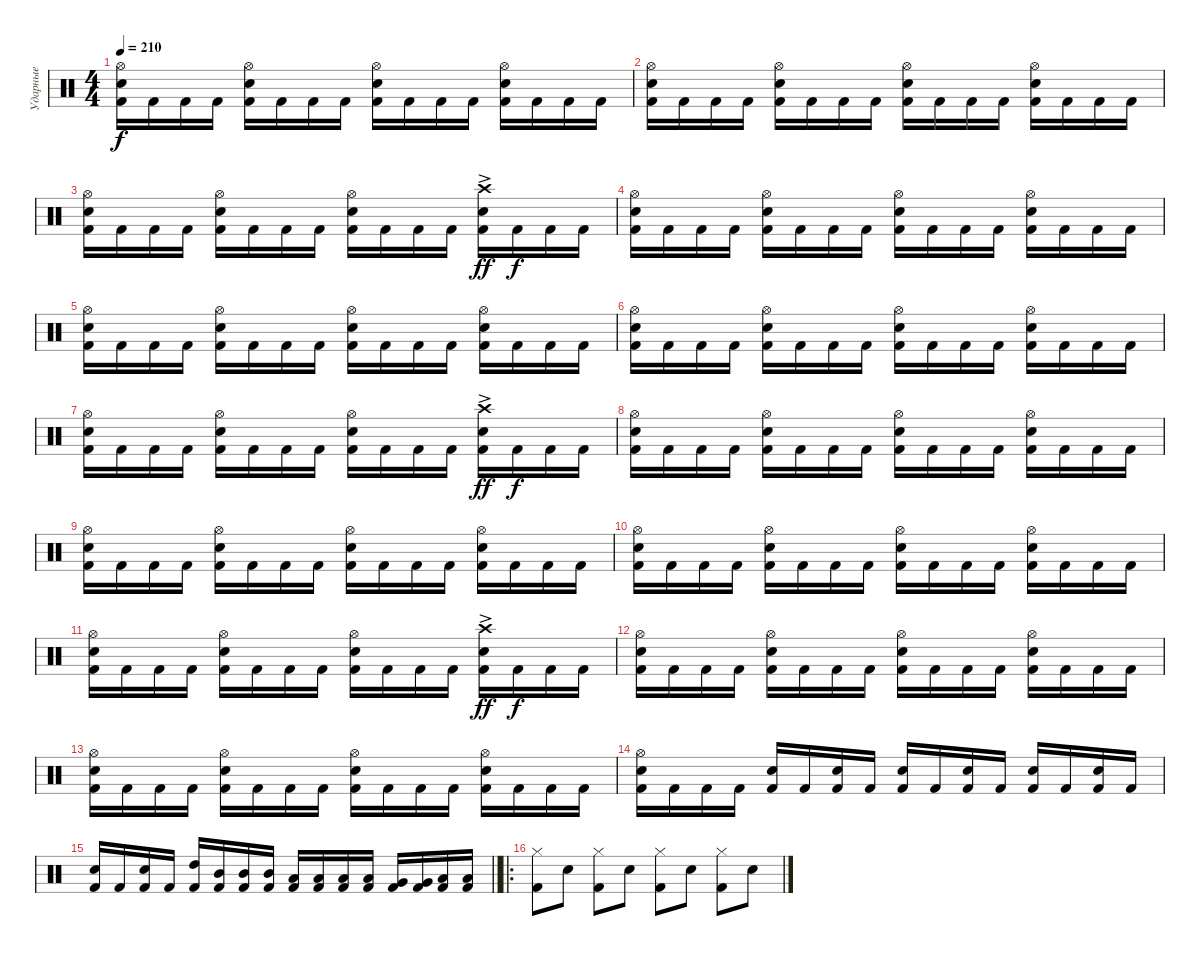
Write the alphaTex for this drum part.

\track ("Ударные" "Ударные") {instrument percussion}
\staff {score}
\articulation defaults
\ts (4 4)
\tempo 210
\clef neutral
\ks c
("Kick (hit) 2" "Snare (hit) 2" "Hi-Hat (open)").16{dy f} "Kick (hit) 2".16 "Kick (hit) 2".16 "Kick (hit) 2".16 ("Kick (hit) 2" "Snare (hit) 2" "Hi-Hat (open)").16 "Kick (hit) 2".16 "Kick (hit) 2".16 "Kick (hit) 2".16 ("Kick (hit) 2" "Snare (hit) 2" "Hi-Hat (open)").16 "Kick (hit) 2".16 "Kick (hit) 2".16 "Kick (hit) 2".16 ("Kick (hit) 2" "Snare (hit) 2" "Hi-Hat (open)").16 "Kick (hit) 2".16 "Kick (hit) 2".16 "Kick (hit) 2".16 |
("Kick (hit) 2" "Snare (hit) 2" "Hi-Hat (open)").16 "Kick (hit) 2".16 "Kick (hit) 2".16 "Kick (hit) 2".16 ("Kick (hit) 2" "Snare (hit) 2" "Hi-Hat (open)").16 "Kick (hit) 2".16 "Kick (hit) 2".16 "Kick (hit) 2".16 ("Kick (hit) 2" "Snare (hit) 2" "Hi-Hat (open)").16 "Kick (hit) 2".16 "Kick (hit) 2".16 "Kick (hit) 2".16 ("Kick (hit) 2" "Snare (hit) 2" "Hi-Hat (open)").16 "Kick (hit) 2".16 "Kick (hit) 2".16 "Kick (hit) 2".16 |
("Kick (hit) 2" "Snare (hit) 2" "Hi-Hat (open)").16 "Kick (hit) 2".16 "Kick (hit) 2".16 "Kick (hit) 2".16 ("Kick (hit) 2" "Snare (hit) 2" "Hi-Hat (open)").16 "Kick (hit) 2".16 "Kick (hit) 2".16 "Kick (hit) 2".16 ("Kick (hit) 2" "Snare (hit) 2" "Hi-Hat (open)").16 "Kick (hit) 2".16 "Kick (hit) 2".16 "Kick (hit) 2".16 ("Kick (hit) 2" "Snare (hit) 2" "Crash high (hit)"{ac}).16{dy ff} "Kick (hit) 2".16{dy f} "Kick (hit) 2".16 "Kick (hit) 2".16 |
("Kick (hit) 2" "Snare (hit) 2" "Hi-Hat (open)").16 "Kick (hit) 2".16 "Kick (hit) 2".16 "Kick (hit) 2".16 ("Kick (hit) 2" "Snare (hit) 2" "Hi-Hat (open)").16 "Kick (hit) 2".16 "Kick (hit) 2".16 "Kick (hit) 2".16 ("Kick (hit) 2" "Snare (hit) 2" "Hi-Hat (open)").16 "Kick (hit) 2".16 "Kick (hit) 2".16 "Kick (hit) 2".16 ("Kick (hit) 2" "Snare (hit) 2" "Hi-Hat (open)").16 "Kick (hit) 2".16 "Kick (hit) 2".16 "Kick (hit) 2".16 |
("Kick (hit) 2" "Snare (hit) 2" "Hi-Hat (open)").16 "Kick (hit) 2".16 "Kick (hit) 2".16 "Kick (hit) 2".16 ("Kick (hit) 2" "Snare (hit) 2" "Hi-Hat (open)").16 "Kick (hit) 2".16 "Kick (hit) 2".16 "Kick (hit) 2".16 ("Kick (hit) 2" "Snare (hit) 2" "Hi-Hat (open)").16 "Kick (hit) 2".16 "Kick (hit) 2".16 "Kick (hit) 2".16 ("Kick (hit) 2" "Snare (hit) 2" "Hi-Hat (open)").16 "Kick (hit) 2".16 "Kick (hit) 2".16 "Kick (hit) 2".16 |
("Kick (hit) 2" "Snare (hit) 2" "Hi-Hat (open)").16 "Kick (hit) 2".16 "Kick (hit) 2".16 "Kick (hit) 2".16 ("Kick (hit) 2" "Snare (hit) 2" "Hi-Hat (open)").16 "Kick (hit) 2".16 "Kick (hit) 2".16 "Kick (hit) 2".16 ("Kick (hit) 2" "Snare (hit) 2" "Hi-Hat (open)").16 "Kick (hit) 2".16 "Kick (hit) 2".16 "Kick (hit) 2".16 ("Kick (hit) 2" "Snare (hit) 2" "Hi-Hat (open)").16 "Kick (hit) 2".16 "Kick (hit) 2".16 "Kick (hit) 2".16 |
("Kick (hit) 2" "Snare (hit) 2" "Hi-Hat (open)").16 "Kick (hit) 2".16 "Kick (hit) 2".16 "Kick (hit) 2".16 ("Kick (hit) 2" "Snare (hit) 2" "Hi-Hat (open)").16 "Kick (hit) 2".16 "Kick (hit) 2".16 "Kick (hit) 2".16 ("Kick (hit) 2" "Snare (hit) 2" "Hi-Hat (open)").16 "Kick (hit) 2".16 "Kick (hit) 2".16 "Kick (hit) 2".16 ("Kick (hit) 2" "Snare (hit) 2" "Crash high (hit)"{ac}).16{dy ff} "Kick (hit) 2".16{dy f} "Kick (hit) 2".16 "Kick (hit) 2".16 |
("Kick (hit) 2" "Snare (hit) 2" "Hi-Hat (open)").16 "Kick (hit) 2".16 "Kick (hit) 2".16 "Kick (hit) 2".16 ("Kick (hit) 2" "Snare (hit) 2" "Hi-Hat (open)").16 "Kick (hit) 2".16 "Kick (hit) 2".16 "Kick (hit) 2".16 ("Kick (hit) 2" "Snare (hit) 2" "Hi-Hat (open)").16 "Kick (hit) 2".16 "Kick (hit) 2".16 "Kick (hit) 2".16 ("Kick (hit) 2" "Snare (hit) 2" "Hi-Hat (open)").16 "Kick (hit) 2".16 "Kick (hit) 2".16 "Kick (hit) 2".16 |
("Kick (hit) 2" "Snare (hit) 2" "Hi-Hat (open)").16 "Kick (hit) 2".16 "Kick (hit) 2".16 "Kick (hit) 2".16 ("Kick (hit) 2" "Snare (hit) 2" "Hi-Hat (open)").16 "Kick (hit) 2".16 "Kick (hit) 2".16 "Kick (hit) 2".16 ("Kick (hit) 2" "Snare (hit) 2" "Hi-Hat (open)").16 "Kick (hit) 2".16 "Kick (hit) 2".16 "Kick (hit) 2".16 ("Kick (hit) 2" "Snare (hit) 2" "Hi-Hat (open)").16 "Kick (hit) 2".16 "Kick (hit) 2".16 "Kick (hit) 2".16 |
("Kick (hit) 2" "Snare (hit) 2" "Hi-Hat (open)").16 "Kick (hit) 2".16 "Kick (hit) 2".16 "Kick (hit) 2".16 ("Kick (hit) 2" "Snare (hit) 2" "Hi-Hat (open)").16 "Kick (hit) 2".16 "Kick (hit) 2".16 "Kick (hit) 2".16 ("Kick (hit) 2" "Snare (hit) 2" "Hi-Hat (open)").16 "Kick (hit) 2".16 "Kick (hit) 2".16 "Kick (hit) 2".16 ("Kick (hit) 2" "Snare (hit) 2" "Hi-Hat (open)").16 "Kick (hit) 2".16 "Kick (hit) 2".16 "Kick (hit) 2".16 |
("Kick (hit) 2" "Snare (hit) 2" "Hi-Hat (open)").16 "Kick (hit) 2".16 "Kick (hit) 2".16 "Kick (hit) 2".16 ("Kick (hit) 2" "Snare (hit) 2" "Hi-Hat (open)").16 "Kick (hit) 2".16 "Kick (hit) 2".16 "Kick (hit) 2".16 ("Kick (hit) 2" "Snare (hit) 2" "Hi-Hat (open)").16 "Kick (hit) 2".16 "Kick (hit) 2".16 "Kick (hit) 2".16 ("Kick (hit) 2" "Snare (hit) 2" "Crash high (hit)"{ac}).16{dy ff} "Kick (hit) 2".16{dy f} "Kick (hit) 2".16 "Kick (hit) 2".16 |
("Kick (hit) 2" "Snare (hit) 2" "Hi-Hat (open)").16 "Kick (hit) 2".16 "Kick (hit) 2".16 "Kick (hit) 2".16 ("Kick (hit) 2" "Snare (hit) 2" "Hi-Hat (open)").16 "Kick (hit) 2".16 "Kick (hit) 2".16 "Kick (hit) 2".16 ("Kick (hit) 2" "Snare (hit) 2" "Hi-Hat (open)").16 "Kick (hit) 2".16 "Kick (hit) 2".16 "Kick (hit) 2".16 ("Kick (hit) 2" "Snare (hit) 2" "Hi-Hat (open)").16 "Kick (hit) 2".16 "Kick (hit) 2".16 "Kick (hit) 2".16 |
("Kick (hit) 2" "Snare (hit) 2" "Hi-Hat (open)").16 "Kick (hit) 2".16 "Kick (hit) 2".16 "Kick (hit) 2".16 ("Kick (hit) 2" "Snare (hit) 2" "Hi-Hat (open)").16 "Kick (hit) 2".16 "Kick (hit) 2".16 "Kick (hit) 2".16 ("Kick (hit) 2" "Snare (hit) 2" "Hi-Hat (open)").16 "Kick (hit) 2".16 "Kick (hit) 2".16 "Kick (hit) 2".16 ("Kick (hit) 2" "Snare (hit) 2" "Hi-Hat (open)").16 "Kick (hit) 2".16 "Kick (hit) 2".16 "Kick (hit) 2".16 |
("Kick (hit) 2" "Snare (hit) 2" "Hi-Hat (open)").16 "Kick (hit) 2".16 "Kick (hit) 2".16 "Kick (hit) 2".16 ("Kick (hit) 2" "Snare (hit) 2").16 "Kick (hit) 2".16 ("Kick (hit) 2" "Snare (hit) 2").16 "Kick (hit) 2".16 ("Kick (hit) 2" "Snare (hit) 2").16 "Kick (hit) 2".16 ("Kick (hit) 2" "Snare (hit) 2").16 "Kick (hit) 2".16 ("Kick (hit) 2" "Snare (hit) 2").16 "Kick (hit) 2".16 ("Kick (hit) 2" "Snare (hit) 2").16 "Kick (hit) 2".16 |
\barLineRight lightlight
("Kick (hit) 2" "Snare (hit) 2").16 "Kick (hit) 2".16 ("Kick (hit) 2" "Snare (hit) 2").16 "Kick (hit) 2".16 ("Kick (hit) 2" "High Tom (hit)").16 ("Kick (hit) 2" "Mid Tom (hit)").16 ("Kick (hit) 2" "Mid Tom (hit)").16 ("Kick (hit) 2" "Mid Tom (hit)").16 ("Kick (hit) 2" "Low Tom (hit)").16 ("Kick (hit) 2" "Low Tom (hit)").16 ("Kick (hit) 2" "Low Tom (hit)").16 ("Kick (hit) 2" "Low Tom (hit)").16 ("Kick (hit) 2" "Very Low Tom (hit)").16 ("Kick (hit) 2" "Very Low Tom (hit)").16 ("Kick (hit) 2" "Low Floor Tom (hit)").16 ("Kick (hit) 2" "Low Floor Tom (hit)").16 |
\ro
("Kick (hit) 2" "Hi-Hat (closed)").8 "Snare (hit) 2".8 ("Kick (hit) 2" "Hi-Hat (closed)").8 "Snare (hit) 2".8 ("Kick (hit) 2" "Hi-Hat (closed)").8 "Snare (hit) 2".8 ("Kick (hit) 2" "Hi-Hat (closed)").8 "Snare (hit) 2".8
